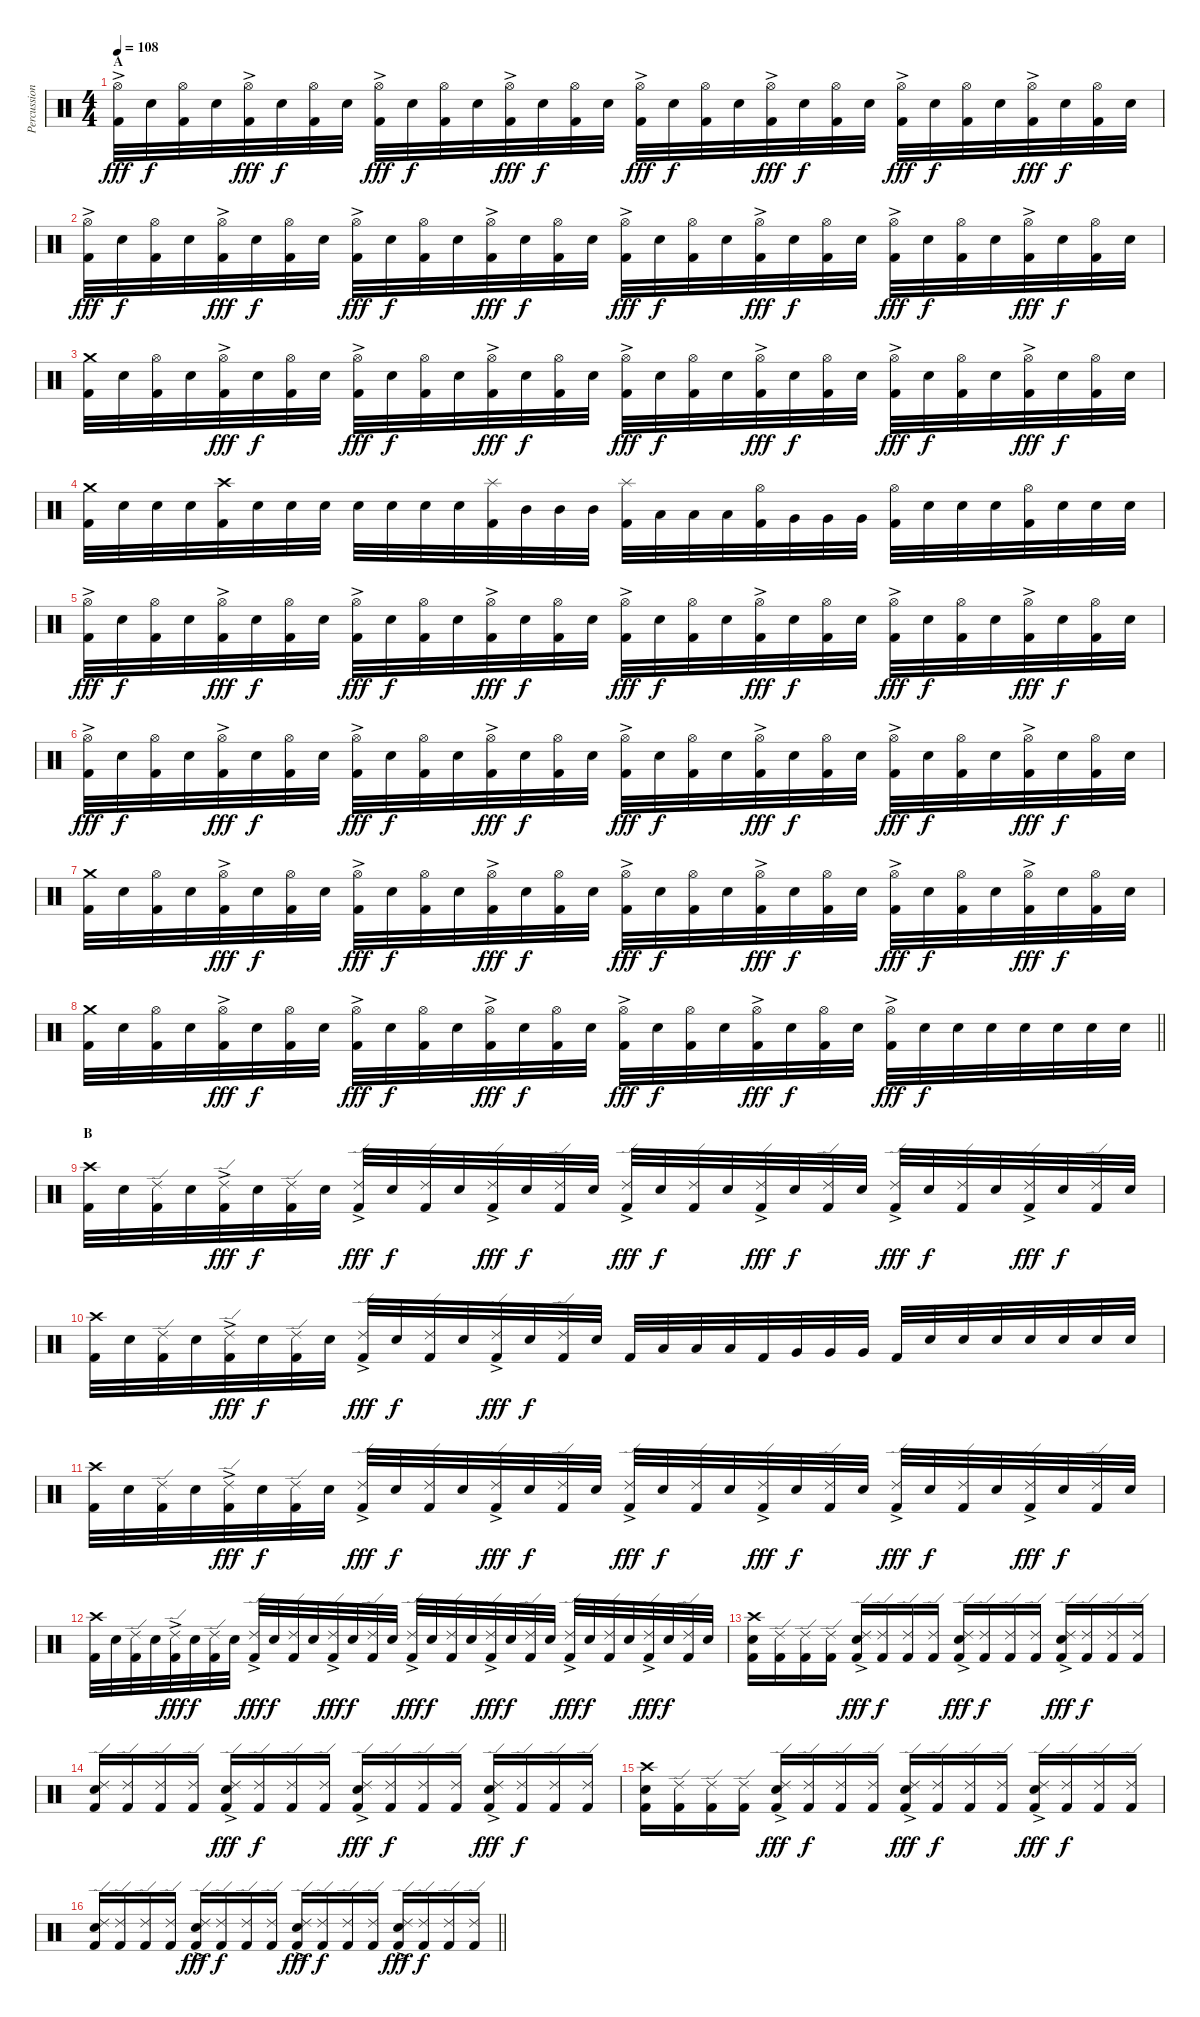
\track ("Percussion" "Percussion") {instrument percussion}
\staff {score}
\articulation defaults
\ts (4 4)
\section ("" "A")
\tempo 108
\clef neutral
\ks c
("Hi-Hat (open)"{ac} "Kick (hit) 2").32{dy fff} "Electric Snare (hit)".32{dy f} ("Hi-Hat (open)" "Kick (hit) 2").32 "Electric Snare (hit)".32 ("Hi-Hat (open)"{ac} "Kick (hit) 2").32{dy fff} "Electric Snare (hit)".32{dy f} ("Hi-Hat (open)" "Kick (hit) 2").32 "Electric Snare (hit)".32 ("Hi-Hat (open)"{ac} "Kick (hit) 2").32{dy fff} "Electric Snare (hit)".32{dy f} ("Hi-Hat (open)" "Kick (hit) 2").32 "Electric Snare (hit)".32 ("Hi-Hat (open)"{ac} "Kick (hit) 2").32{dy fff} "Electric Snare (hit)".32{dy f} ("Hi-Hat (open)" "Kick (hit) 2").32 "Electric Snare (hit)".32 ("Hi-Hat (open)"{ac} "Kick (hit) 2").32{dy fff} "Electric Snare (hit)".32{dy f} ("Hi-Hat (open)" "Kick (hit) 2").32 "Electric Snare (hit)".32 ("Hi-Hat (open)"{ac} "Kick (hit) 2").32{dy fff} "Electric Snare (hit)".32{dy f} ("Hi-Hat (open)" "Kick (hit) 2").32 "Electric Snare (hit)".32 ("Hi-Hat (open)"{ac} "Kick (hit) 2").32{dy fff} "Electric Snare (hit)".32{dy f} ("Hi-Hat (open)" "Kick (hit) 2").32 "Electric Snare (hit)".32 ("Hi-Hat (open)"{ac} "Kick (hit) 2").32{dy fff} "Electric Snare (hit)".32{dy f} ("Hi-Hat (open)" "Kick (hit) 2").32 "Electric Snare (hit)".32 |
("Hi-Hat (open)"{ac} "Kick (hit) 2").32{dy fff} "Electric Snare (hit)".32{dy f} ("Hi-Hat (open)" "Kick (hit) 2").32 "Electric Snare (hit)".32 ("Hi-Hat (open)"{ac} "Kick (hit) 2").32{dy fff} "Electric Snare (hit)".32{dy f} ("Hi-Hat (open)" "Kick (hit) 2").32 "Electric Snare (hit)".32 ("Hi-Hat (open)"{ac} "Kick (hit) 2").32{dy fff} "Electric Snare (hit)".32{dy f} ("Hi-Hat (open)" "Kick (hit) 2").32 "Electric Snare (hit)".32 ("Hi-Hat (open)"{ac} "Kick (hit) 2").32{dy fff} "Electric Snare (hit)".32{dy f} ("Hi-Hat (open)" "Kick (hit) 2").32 "Electric Snare (hit)".32 ("Hi-Hat (open)"{ac} "Kick (hit) 2").32{dy fff} "Electric Snare (hit)".32{dy f} ("Hi-Hat (open)" "Kick (hit) 2").32 "Electric Snare (hit)".32 ("Hi-Hat (open)"{ac} "Kick (hit) 2").32{dy fff} "Electric Snare (hit)".32{dy f} ("Hi-Hat (open)" "Kick (hit) 2").32 "Electric Snare (hit)".32 ("Hi-Hat (open)"{ac} "Kick (hit) 2").32{dy fff} "Electric Snare (hit)".32{dy f} ("Hi-Hat (open)" "Kick (hit) 2").32 "Electric Snare (hit)".32 ("Hi-Hat (open)"{ac} "Kick (hit) 2").32{dy fff} "Electric Snare (hit)".32{dy f} ("Hi-Hat (open)" "Kick (hit) 2").32 "Electric Snare (hit)".32 |
("Crash medium (hit)" "Kick (hit) 2").32 "Electric Snare (hit)".32 ("Hi-Hat (open)" "Kick (hit) 2").32 "Electric Snare (hit)".32 ("Hi-Hat (open)"{ac} "Kick (hit) 2").32{dy fff} "Electric Snare (hit)".32{dy f} ("Hi-Hat (open)" "Kick (hit) 2").32 "Electric Snare (hit)".32 ("Hi-Hat (open)"{ac} "Kick (hit) 2").32{dy fff} "Electric Snare (hit)".32{dy f} ("Hi-Hat (open)" "Kick (hit) 2").32 "Electric Snare (hit)".32 ("Hi-Hat (open)"{ac} "Kick (hit) 2").32{dy fff} "Electric Snare (hit)".32{dy f} ("Hi-Hat (open)" "Kick (hit) 2").32 "Electric Snare (hit)".32 ("Hi-Hat (open)"{ac} "Kick (hit) 2").32{dy fff} "Electric Snare (hit)".32{dy f} ("Hi-Hat (open)" "Kick (hit) 2").32 "Electric Snare (hit)".32 ("Hi-Hat (open)"{ac} "Kick (hit) 2").32{dy fff} "Electric Snare (hit)".32{dy f} ("Hi-Hat (open)" "Kick (hit) 2").32 "Electric Snare (hit)".32 ("Hi-Hat (open)"{ac} "Kick (hit) 2").32{dy fff} "Electric Snare (hit)".32{dy f} ("Hi-Hat (open)" "Kick (hit) 2").32 "Electric Snare (hit)".32 ("Hi-Hat (open)"{ac} "Kick (hit) 2").32{dy fff} "Electric Snare (hit)".32{dy f} ("Hi-Hat (open)" "Kick (hit) 2").32 "Electric Snare (hit)".32 |
("Crash medium (hit)" "Kick (hit) 2").32 "Electric Snare (hit)".32 "Electric Snare (hit)".32 "Electric Snare (hit)".32 ("Crash high (hit)" "Kick (hit) 2").32 "Electric Snare (hit)".32 "Electric Snare (hit)".32 "Electric Snare (hit)".32 "Electric Snare (hit)".32 "Electric Snare (hit)".32 "Electric Snare (hit)".32 "Electric Snare (hit)".32 ("Splash (hit)" "Kick (hit) 2").32 "Mid Tom (hit)".32 "Mid Tom (hit)".32 "Mid Tom (hit)".32 ("Splash (hit)" "Kick (hit) 2").32 "Low Tom (hit)".32 "Low Tom (hit)".32 "Low Tom (hit)".32 ("Hi-Hat (open)" "Kick (hit) 2").32 "Very Low Tom (hit)".32 "Very Low Tom (hit)".32 "Very Low Tom (hit)".32 ("Hi-Hat (open)" "Kick (hit) 2").32 "Electric Snare (hit)".32 "Electric Snare (hit)".32 "Electric Snare (hit)".32 ("Hi-Hat (open)" "Kick (hit) 2").32 "Electric Snare (hit)".32 "Electric Snare (hit)".32 "Electric Snare (hit)".32 |
("Hi-Hat (open)"{ac} "Kick (hit) 2").32{dy fff} "Electric Snare (hit)".32{dy f} ("Hi-Hat (open)" "Kick (hit) 2").32 "Electric Snare (hit)".32 ("Hi-Hat (open)"{ac} "Kick (hit) 2").32{dy fff} "Electric Snare (hit)".32{dy f} ("Hi-Hat (open)" "Kick (hit) 2").32 "Electric Snare (hit)".32 ("Hi-Hat (open)"{ac} "Kick (hit) 2").32{dy fff} "Electric Snare (hit)".32{dy f} ("Hi-Hat (open)" "Kick (hit) 2").32 "Electric Snare (hit)".32 ("Hi-Hat (open)"{ac} "Kick (hit) 2").32{dy fff} "Electric Snare (hit)".32{dy f} ("Hi-Hat (open)" "Kick (hit) 2").32 "Electric Snare (hit)".32 ("Hi-Hat (open)"{ac} "Kick (hit) 2").32{dy fff} "Electric Snare (hit)".32{dy f} ("Hi-Hat (open)" "Kick (hit) 2").32 "Electric Snare (hit)".32 ("Hi-Hat (open)"{ac} "Kick (hit) 2").32{dy fff} "Electric Snare (hit)".32{dy f} ("Hi-Hat (open)" "Kick (hit) 2").32 "Electric Snare (hit)".32 ("Hi-Hat (open)"{ac} "Kick (hit) 2").32{dy fff} "Electric Snare (hit)".32{dy f} ("Hi-Hat (open)" "Kick (hit) 2").32 "Electric Snare (hit)".32 ("Hi-Hat (open)"{ac} "Kick (hit) 2").32{dy fff} "Electric Snare (hit)".32{dy f} ("Hi-Hat (open)" "Kick (hit) 2").32 "Electric Snare (hit)".32 |
("Hi-Hat (open)"{ac} "Kick (hit) 2").32{dy fff} "Electric Snare (hit)".32{dy f} ("Hi-Hat (open)" "Kick (hit) 2").32 "Electric Snare (hit)".32 ("Hi-Hat (open)"{ac} "Kick (hit) 2").32{dy fff} "Electric Snare (hit)".32{dy f} ("Hi-Hat (open)" "Kick (hit) 2").32 "Electric Snare (hit)".32 ("Hi-Hat (open)"{ac} "Kick (hit) 2").32{dy fff} "Electric Snare (hit)".32{dy f} ("Hi-Hat (open)" "Kick (hit) 2").32 "Electric Snare (hit)".32 ("Hi-Hat (open)"{ac} "Kick (hit) 2").32{dy fff} "Electric Snare (hit)".32{dy f} ("Hi-Hat (open)" "Kick (hit) 2").32 "Electric Snare (hit)".32 ("Hi-Hat (open)"{ac} "Kick (hit) 2").32{dy fff} "Electric Snare (hit)".32{dy f} ("Hi-Hat (open)" "Kick (hit) 2").32 "Electric Snare (hit)".32 ("Hi-Hat (open)"{ac} "Kick (hit) 2").32{dy fff} "Electric Snare (hit)".32{dy f} ("Hi-Hat (open)" "Kick (hit) 2").32 "Electric Snare (hit)".32 ("Hi-Hat (open)"{ac} "Kick (hit) 2").32{dy fff} "Electric Snare (hit)".32{dy f} ("Hi-Hat (open)" "Kick (hit) 2").32 "Electric Snare (hit)".32 ("Hi-Hat (open)"{ac} "Kick (hit) 2").32{dy fff} "Electric Snare (hit)".32{dy f} ("Hi-Hat (open)" "Kick (hit) 2").32 "Electric Snare (hit)".32 |
("Crash medium (hit)" "Kick (hit) 2").32 "Electric Snare (hit)".32 ("Hi-Hat (open)" "Kick (hit) 2").32 "Electric Snare (hit)".32 ("Hi-Hat (open)"{ac} "Kick (hit) 2").32{dy fff} "Electric Snare (hit)".32{dy f} ("Hi-Hat (open)" "Kick (hit) 2").32 "Electric Snare (hit)".32 ("Hi-Hat (open)"{ac} "Kick (hit) 2").32{dy fff} "Electric Snare (hit)".32{dy f} ("Hi-Hat (open)" "Kick (hit) 2").32 "Electric Snare (hit)".32 ("Hi-Hat (open)"{ac} "Kick (hit) 2").32{dy fff} "Electric Snare (hit)".32{dy f} ("Hi-Hat (open)" "Kick (hit) 2").32 "Electric Snare (hit)".32 ("Hi-Hat (open)"{ac} "Kick (hit) 2").32{dy fff} "Electric Snare (hit)".32{dy f} ("Hi-Hat (open)" "Kick (hit) 2").32 "Electric Snare (hit)".32 ("Hi-Hat (open)"{ac} "Kick (hit) 2").32{dy fff} "Electric Snare (hit)".32{dy f} ("Hi-Hat (open)" "Kick (hit) 2").32 "Electric Snare (hit)".32 ("Hi-Hat (open)"{ac} "Kick (hit) 2").32{dy fff} "Electric Snare (hit)".32{dy f} ("Hi-Hat (open)" "Kick (hit) 2").32 "Electric Snare (hit)".32 ("Hi-Hat (open)"{ac} "Kick (hit) 2").32{dy fff} "Electric Snare (hit)".32{dy f} ("Hi-Hat (open)" "Kick (hit) 2").32 "Electric Snare (hit)".32 |
\barLineRight lightlight
("Crash medium (hit)" "Kick (hit) 2").32 "Electric Snare (hit)".32 ("Hi-Hat (open)" "Kick (hit) 2").32 "Electric Snare (hit)".32 ("Hi-Hat (open)"{ac} "Kick (hit) 2").32{dy fff} "Electric Snare (hit)".32{dy f} ("Hi-Hat (open)" "Kick (hit) 2").32 "Electric Snare (hit)".32 ("Hi-Hat (open)"{ac} "Kick (hit) 2").32{dy fff} "Electric Snare (hit)".32{dy f} ("Hi-Hat (open)" "Kick (hit) 2").32 "Electric Snare (hit)".32 ("Hi-Hat (open)"{ac} "Kick (hit) 2").32{dy fff} "Electric Snare (hit)".32{dy f} ("Hi-Hat (open)" "Kick (hit) 2").32 "Electric Snare (hit)".32 ("Hi-Hat (open)"{ac} "Kick (hit) 2").32{dy fff} "Electric Snare (hit)".32{dy f} ("Hi-Hat (open)" "Kick (hit) 2").32 "Electric Snare (hit)".32 ("Hi-Hat (open)"{ac} "Kick (hit) 2").32{dy fff} "Electric Snare (hit)".32{dy f} ("Hi-Hat (open)" "Kick (hit) 2").32 "Electric Snare (hit)".32 ("Hi-Hat (open)"{ac} "Kick (hit) 2").32{dy fff} "Electric Snare (hit)".32{dy f} "Electric Snare (hit)".32 "Electric Snare (hit)".32 "Electric Snare (hit)".32 "Electric Snare (hit)".32 "Electric Snare (hit)".32 "Electric Snare (hit)".32 |
\section ("" "B")
("Crash high (hit)" "Kick (hit) 2").32 "Electric Snare (hit)".32 ("Ride (edge) 2" "Kick (hit) 2").32 "Electric Snare (hit)".32 ("Ride (edge) 2"{ac} "Kick (hit) 2").32{dy fff} "Electric Snare (hit)".32{dy f} ("Ride (edge) 2" "Kick (hit) 2").32 "Electric Snare (hit)".32 ("Ride (edge) 2"{ac} "Kick (hit) 2").32{dy fff} "Electric Snare (hit)".32{dy f} ("Ride (edge) 2" "Kick (hit) 2").32 "Electric Snare (hit)".32 ("Ride (edge) 2"{ac} "Kick (hit) 2").32{dy fff} "Electric Snare (hit)".32{dy f} ("Ride (edge) 2" "Kick (hit) 2").32 "Electric Snare (hit)".32 ("Ride (edge) 2"{ac} "Kick (hit) 2").32{dy fff} "Electric Snare (hit)".32{dy f} ("Ride (edge) 2" "Kick (hit) 2").32 "Electric Snare (hit)".32 ("Ride (edge) 2"{ac} "Kick (hit) 2").32{dy fff} "Electric Snare (hit)".32{dy f} ("Ride (edge) 2" "Kick (hit) 2").32 "Electric Snare (hit)".32 ("Ride (edge) 2"{ac} "Kick (hit) 2").32{dy fff} "Electric Snare (hit)".32{dy f} ("Ride (edge) 2" "Kick (hit) 2").32 "Electric Snare (hit)".32 ("Ride (edge) 2"{ac} "Kick (hit) 2").32{dy fff} "Electric Snare (hit)".32{dy f} ("Ride (edge) 2" "Kick (hit) 2").32 "Electric Snare (hit)".32 |
("Crash high (hit)" "Kick (hit) 2").32 "Electric Snare (hit)".32 ("Ride (edge) 2" "Kick (hit) 2").32 "Electric Snare (hit)".32 ("Ride (edge) 2"{ac} "Kick (hit) 2").32{dy fff} "Electric Snare (hit)".32{dy f} ("Ride (edge) 2" "Kick (hit) 2").32 "Electric Snare (hit)".32 ("Ride (edge) 2"{ac} "Kick (hit) 2").32{dy fff} "Electric Snare (hit)".32{dy f} ("Ride (edge) 2" "Kick (hit) 2").32 "Electric Snare (hit)".32 ("Ride (edge) 2"{ac} "Kick (hit) 2").32{dy fff} "Electric Snare (hit)".32{dy f} ("Ride (edge) 2" "Kick (hit) 2").32 "Electric Snare (hit)".32 "Kick (hit) 2".32 "Low Tom (hit)".32 "Low Tom (hit)".32 "Low Tom (hit)".32 "Kick (hit) 2".32 "Very Low Tom (hit)".32 "Very Low Tom (hit)".32 "Very Low Tom (hit)".32 "Kick (hit) 2".32 "Electric Snare (hit)".32 "Electric Snare (hit)".32 "Electric Snare (hit)".32 "Electric Snare (hit)".32 "Electric Snare (hit)".32 "Electric Snare (hit)".32 "Electric Snare (hit)".32 |
("Crash high (hit)" "Kick (hit) 2").32 "Electric Snare (hit)".32 ("Ride (edge) 2" "Kick (hit) 2").32 "Electric Snare (hit)".32 ("Ride (edge) 2"{ac} "Kick (hit) 2").32{dy fff} "Electric Snare (hit)".32{dy f} ("Ride (edge) 2" "Kick (hit) 2").32 "Electric Snare (hit)".32 ("Ride (edge) 2"{ac} "Kick (hit) 2").32{dy fff} "Electric Snare (hit)".32{dy f} ("Ride (edge) 2" "Kick (hit) 2").32 "Electric Snare (hit)".32 ("Ride (edge) 2"{ac} "Kick (hit) 2").32{dy fff} "Electric Snare (hit)".32{dy f} ("Ride (edge) 2" "Kick (hit) 2").32 "Electric Snare (hit)".32 ("Ride (edge) 2"{ac} "Kick (hit) 2").32{dy fff} "Electric Snare (hit)".32{dy f} ("Ride (edge) 2" "Kick (hit) 2").32 "Electric Snare (hit)".32 ("Ride (edge) 2"{ac} "Kick (hit) 2").32{dy fff} "Electric Snare (hit)".32{dy f} ("Ride (edge) 2" "Kick (hit) 2").32 "Electric Snare (hit)".32 ("Ride (edge) 2"{ac} "Kick (hit) 2").32{dy fff} "Electric Snare (hit)".32{dy f} ("Ride (edge) 2" "Kick (hit) 2").32 "Electric Snare (hit)".32 ("Ride (edge) 2"{ac} "Kick (hit) 2").32{dy fff} "Electric Snare (hit)".32{dy f} ("Ride (edge) 2" "Kick (hit) 2").32 "Electric Snare (hit)".32 |
("Crash high (hit)" "Kick (hit) 2").32 "Electric Snare (hit)".32 ("Ride (edge) 2" "Kick (hit) 2").32 "Electric Snare (hit)".32 ("Ride (edge) 2"{ac} "Kick (hit) 2").32{dy fff} "Electric Snare (hit)".32{dy f} ("Ride (edge) 2" "Kick (hit) 2").32 "Electric Snare (hit)".32 ("Ride (edge) 2"{ac} "Kick (hit) 2").32{dy fff} "Electric Snare (hit)".32{dy f} ("Ride (edge) 2" "Kick (hit) 2").32 "Electric Snare (hit)".32 ("Ride (edge) 2"{ac} "Kick (hit) 2").32{dy fff} "Electric Snare (hit)".32{dy f} ("Ride (edge) 2" "Kick (hit) 2").32 "Electric Snare (hit)".32 ("Ride (edge) 2"{ac} "Kick (hit) 2").32{dy fff} "Electric Snare (hit)".32{dy f} ("Ride (edge) 2" "Kick (hit) 2").32 "Electric Snare (hit)".32 ("Ride (edge) 2"{ac} "Kick (hit) 2").32{dy fff} "Electric Snare (hit)".32{dy f} ("Ride (edge) 2" "Kick (hit) 2").32 "Electric Snare (hit)".32 ("Ride (edge) 2"{ac} "Kick (hit) 2").32{dy fff} "Electric Snare (hit)".32{dy f} ("Ride (edge) 2" "Kick (hit) 2").32 "Electric Snare (hit)".32 ("Ride (edge) 2"{ac} "Kick (hit) 2").32{dy fff} "Electric Snare (hit)".32{dy f} ("Ride (edge) 2" "Kick (hit) 2").32 "Electric Snare (hit)".32 |
("Crash high (hit)" "Electric Snare (hit)" "Kick (hit) 2").16 ("Ride (edge) 2" "Kick (hit) 2").16 ("Ride (edge) 2" "Kick (hit) 2").16 ("Ride (edge) 2" "Kick (hit) 2").16 ("Ride (edge) 2"{ac} "Electric Snare (hit)" "Kick (hit) 2").16{dy fff} ("Ride (edge) 2" "Kick (hit) 2").16{dy f} ("Ride (edge) 2" "Kick (hit) 2").16 ("Ride (edge) 2" "Kick (hit) 2").16 ("Ride (edge) 2"{ac} "Electric Snare (hit)" "Kick (hit) 2").16{dy fff} ("Ride (edge) 2" "Kick (hit) 2").16{dy f} ("Ride (edge) 2" "Kick (hit) 2").16 ("Ride (edge) 2" "Kick (hit) 2").16 ("Ride (edge) 2"{ac} "Electric Snare (hit)" "Kick (hit) 2").16{dy fff} ("Ride (edge) 2" "Kick (hit) 2").16{dy f} ("Ride (edge) 2" "Kick (hit) 2").16 ("Ride (edge) 2" "Kick (hit) 2").16 |
("Ride (edge) 2" "Electric Snare (hit)" "Kick (hit) 2").16 ("Ride (edge) 2" "Kick (hit) 2").16 ("Ride (edge) 2" "Kick (hit) 2").16 ("Ride (edge) 2" "Kick (hit) 2").16 ("Ride (edge) 2"{ac} "Electric Snare (hit)" "Kick (hit) 2").16{dy fff} ("Ride (edge) 2" "Kick (hit) 2").16{dy f} ("Ride (edge) 2" "Kick (hit) 2").16 ("Ride (edge) 2" "Kick (hit) 2").16 ("Ride (edge) 2"{ac} "Electric Snare (hit)" "Kick (hit) 2").16{dy fff} ("Ride (edge) 2" "Kick (hit) 2").16{dy f} ("Ride (edge) 2" "Kick (hit) 2").16 ("Ride (edge) 2" "Kick (hit) 2").16 ("Ride (edge) 2"{ac} "Electric Snare (hit)" "Kick (hit) 2").16{dy fff} ("Ride (edge) 2" "Kick (hit) 2").16{dy f} ("Ride (edge) 2" "Kick (hit) 2").16 ("Ride (edge) 2" "Kick (hit) 2").16 |
("Crash high (hit)" "Electric Snare (hit)" "Kick (hit) 2").16 ("Ride (edge) 2" "Kick (hit) 2").16 ("Ride (edge) 2" "Kick (hit) 2").16 ("Ride (edge) 2" "Kick (hit) 2").16 ("Ride (edge) 2"{ac} "Electric Snare (hit)" "Kick (hit) 2").16{dy fff} ("Ride (edge) 2" "Kick (hit) 2").16{dy f} ("Ride (edge) 2" "Kick (hit) 2").16 ("Ride (edge) 2" "Kick (hit) 2").16 ("Ride (edge) 2"{ac} "Electric Snare (hit)" "Kick (hit) 2").16{dy fff} ("Ride (edge) 2" "Kick (hit) 2").16{dy f} ("Ride (edge) 2" "Kick (hit) 2").16 ("Ride (edge) 2" "Kick (hit) 2").16 ("Ride (edge) 2"{ac} "Electric Snare (hit)" "Kick (hit) 2").16{dy fff} ("Ride (edge) 2" "Kick (hit) 2").16{dy f} ("Ride (edge) 2" "Kick (hit) 2").16 ("Ride (edge) 2" "Kick (hit) 2").16 |
\barLineRight lightlight
("Ride (edge) 2" "Electric Snare (hit)" "Kick (hit) 2").16 ("Ride (edge) 2" "Kick (hit) 2").16 ("Ride (edge) 2" "Kick (hit) 2").16 ("Ride (edge) 2" "Kick (hit) 2").16 ("Ride (edge) 2"{ac} "Electric Snare (hit)" "Kick (hit) 2").16{dy fff} ("Ride (edge) 2" "Kick (hit) 2").16{dy f} ("Ride (edge) 2" "Kick (hit) 2").16 ("Ride (edge) 2" "Kick (hit) 2").16 ("Ride (edge) 2"{ac} "Electric Snare (hit)" "Kick (hit) 2").16{dy fff} ("Ride (edge) 2" "Kick (hit) 2").16{dy f} ("Ride (edge) 2" "Kick (hit) 2").16 ("Ride (edge) 2" "Kick (hit) 2").16 ("Ride (edge) 2"{ac} "Electric Snare (hit)" "Kick (hit) 2").16{dy fff} ("Ride (edge) 2" "Kick (hit) 2").16{dy f} ("Ride (edge) 2" "Kick (hit) 2").16 ("Ride (edge) 2" "Kick (hit) 2").16
